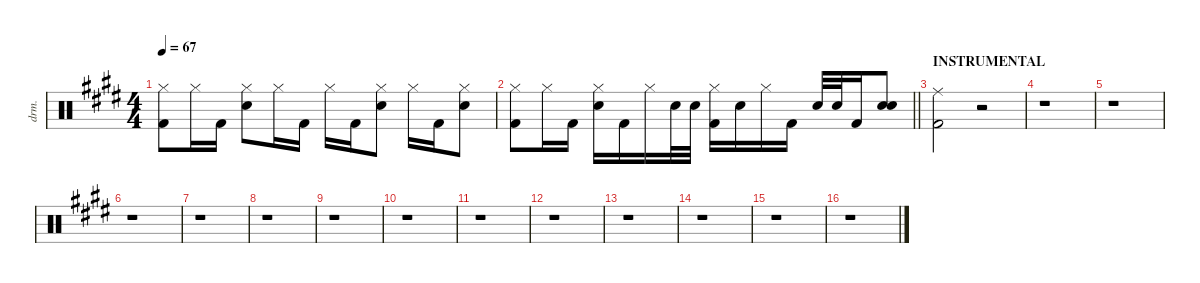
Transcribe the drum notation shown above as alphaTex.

\defaultSystemsLayout 4
\hideDynamics
\bracketExtendMode groupsimilarinstruments
\otherSystemsTrackNameOrientation horizontal
\track ("Drums" "drm.") {defaultSystemsLayout 4 instrument percussion}
\staff {score}
\articulation defaults
\ts (4 4)
\tempo 67
\clef neutral
\ks c#minor
("Kick (hit) 2"{acc forcenatural} "Hi-Hat (closed)"{acc forcenatural}).8{dy f beam Down} "Hi-Hat (closed)"{acc forcenatural}.16{beam Down} "Kick (hit) 2"{acc forcenatural}.16{beam Down} ("Snare (hit) 2"{acc forcenatural} "Hi-Hat (closed)"{acc forcenatural}).8{beam Down} "Hi-Hat (closed)"{acc forcenatural}.16{beam Down} "Kick (hit) 2"{acc forcenatural}.16{beam Down} "Hi-Hat (closed)"{acc forcenatural}.16{beam Down} "Kick (hit) 2"{acc forcenatural}.16{beam Down} ("Snare (hit) 2"{acc forcenatural} "Hi-Hat (closed)"{acc forcenatural}).8{beam Down} "Hi-Hat (closed)"{acc forcenatural}.16{beam Down} "Kick (hit) 2"{acc forcenatural}.16{beam Down} ("Snare (hit) 2"{acc forcenatural} "Hi-Hat (closed)"{acc forcenatural}).8{beam Down} |
\barLineRight lightlight
("Kick (hit) 2"{acc forcenatural} "Hi-Hat (closed)"{acc forcenatural}).8{beam Down} "Hi-Hat (closed)"{acc forcenatural}.16{beam Down} "Kick (hit) 2"{acc forcenatural}.16{beam Down} ("Snare (hit) 2"{acc forcenatural} "Hi-Hat (closed)"{acc forcenatural}).16{beam Down} "Kick (hit) 2"{acc forcenatural}.16{beam Down} "Hi-Hat (closed)"{acc forcenatural}.16{beam Down} "Snare (hit) 2"{acc forcenatural}.32{beam Down} "Snare (hit) 2"{acc forcenatural}.32{beam Down} ("Kick (hit) 2"{acc forcenatural} "Hi-Hat (closed)"{acc forcenatural}).16{beam Down} "Snare (hit) 2"{acc forcenatural}.16{beam Down} "Hi-Hat (closed)"{acc forcenatural}.16{beam Down} "Kick (hit) 2"{acc forcenatural}.16{beam Down} "Snare (hit) 2"{acc forcenatural}.32{beam Up} "Snare (hit) 2"{acc forcenatural}.32{beam Up} "Kick (hit) 2"{acc forcenatural}.16{beam Up} ("Snare (hit) 2"{acc forcenatural} "Snare (hit) 2"{acc forcenatural}).8{dy mf beam Up} |
\section ("" "INSTRUMENTAL")
("Ride (middle)"{acc forcenatural} "Kick (hit) 2"{acc forcenatural}).2{beam Down} r.2{beam Down} |
r.1{beam Down} |
r.1{beam Down} |
r.1{beam Down} |
r.1{beam Down} |
r.1{beam Down} |
r.1{beam Down} |
r.1{beam Down} |
r.1{beam Down} |
r.1{beam Down} |
r.1{beam Down} |
r.1{beam Down} |
r.1{beam Down} |
r.1{beam Down}
